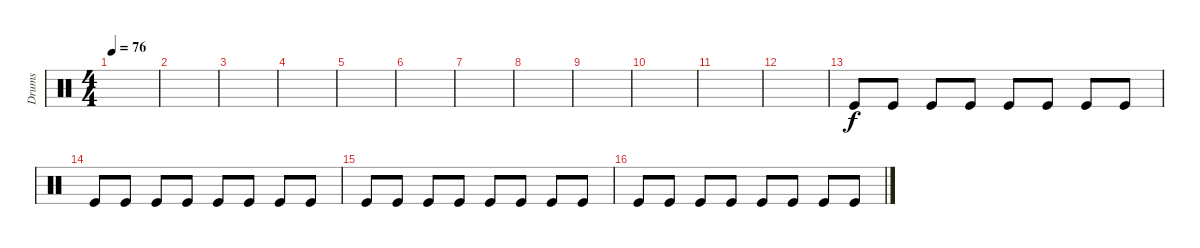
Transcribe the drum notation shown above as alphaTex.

\track ("Drumkit" "Drums") {instrument percussion}
\staff {score}
\articulation defaults
\ts (4 4)
\tempo 76
\clef neutral
\ks c
|
|
|
|
|
|
|
|
|
|
|
|
"Kick (hit)".8 "Kick (hit)".8 "Kick (hit)".8 "Kick (hit)".8 "Kick (hit)".8 "Kick (hit)".8 "Kick (hit)".8 "Kick (hit)".8 |
"Kick (hit)".8 "Kick (hit)".8 "Kick (hit)".8 "Kick (hit)".8 "Kick (hit)".8 "Kick (hit)".8 "Kick (hit)".8 "Kick (hit)".8 |
"Kick (hit)".8 "Kick (hit)".8 "Kick (hit)".8 "Kick (hit)".8 "Kick (hit)".8 "Kick (hit)".8 "Kick (hit)".8 "Kick (hit)".8 |
"Kick (hit)".8 "Kick (hit)".8 "Kick (hit)".8 "Kick (hit)".8 "Kick (hit)".8 "Kick (hit)".8 "Kick (hit)".8 "Kick (hit)".8
